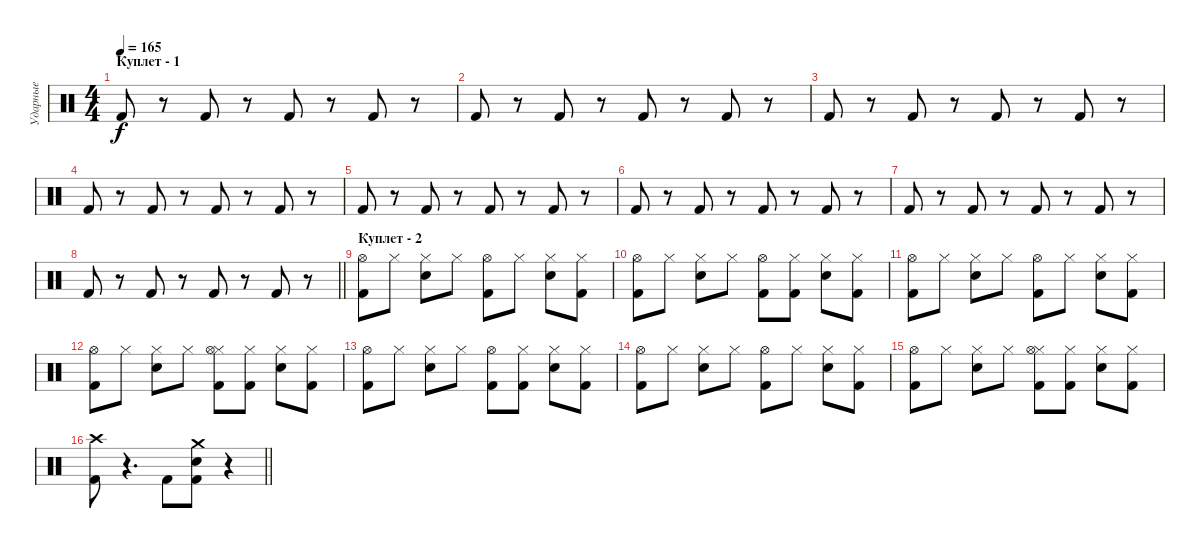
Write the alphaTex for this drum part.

\track ("Ударные" "Ударные") {instrument percussion}
\staff {score}
\articulation defaults
\ts (4 4)
\section ("" "Куплет - 1")
\tempo 165
\clef neutral
\ks c "Kick (hit) 2".8{dy f}
r.8 "Kick (hit) 2".8 r.8 "Kick (hit) 2".8 r.8 "Kick (hit) 2".8 r.8 |
"Kick (hit) 2".8 r.8 "Kick (hit) 2".8 r.8 "Kick (hit) 2".8 r.8 "Kick (hit) 2".8 r.8 |
"Kick (hit) 2".8 r.8 "Kick (hit) 2".8 r.8 "Kick (hit) 2".8 r.8 "Kick (hit) 2".8 r.8 |
"Kick (hit) 2".8 r.8 "Kick (hit) 2".8 r.8 "Kick (hit) 2".8 r.8 "Kick (hit) 2".8 r.8 |
"Kick (hit) 2".8 r.8 "Kick (hit) 2".8 r.8 "Kick (hit) 2".8 r.8 "Kick (hit) 2".8 r.8 |
"Kick (hit) 2".8 r.8 "Kick (hit) 2".8 r.8 "Kick (hit) 2".8 r.8 "Kick (hit) 2".8 r.8 |
"Kick (hit) 2".8 r.8 "Kick (hit) 2".8 r.8 "Kick (hit) 2".8 r.8 "Kick (hit) 2".8 r.8 |
\barLineRight lightlight "Kick (hit) 2".8
r.8 "Kick (hit) 2".8 r.8 "Kick (hit) 2".8 r.8 "Kick (hit) 2".8 r.8 |
\section ("" "Куплет - 2")
("Kick (hit) 2" "Hi-Hat (open)").8 "Hi-Hat (closed)".8 ("Snare (hit) 2" "Hi-Hat (closed)").8 "Hi-Hat (closed)".8 ("Kick (hit) 2" "Hi-Hat (open)").8 "Hi-Hat (closed)".8 ("Snare (hit) 2" "Hi-Hat (closed)").8 ("Kick (hit) 2" "Hi-Hat (closed)").8 |
("Kick (hit) 2" "Hi-Hat (open)").8 "Hi-Hat (closed)".8 ("Snare (hit) 2" "Hi-Hat (closed)").8 "Hi-Hat (closed)".8 ("Kick (hit) 2" "Hi-Hat (open)").8 ("Kick (hit) 2" "Hi-Hat (closed)").8 ("Snare (hit) 2" "Hi-Hat (closed)").8 ("Kick (hit) 2" "Hi-Hat (closed)").8 |
("Kick (hit) 2" "Hi-Hat (open)").8 "Hi-Hat (closed)".8 ("Snare (hit) 2" "Hi-Hat (closed)").8 "Hi-Hat (closed)".8 ("Kick (hit) 2" "Hi-Hat (open)").8 "Hi-Hat (closed)".8 ("Snare (hit) 2" "Hi-Hat (closed)").8 ("Kick (hit) 2" "Hi-Hat (closed)").8 |
("Kick (hit) 2" "Hi-Hat (open)").8 "Hi-Hat (closed)".8 ("Snare (hit) 2" "Hi-Hat (closed)").8 "Hi-Hat (closed)".8 ("Kick (hit) 2" "Hi-Hat (closed)" "Hi-Hat (open)").8 ("Kick (hit) 2" "Hi-Hat (closed)").8 ("Snare (hit) 2" "Hi-Hat (closed)").8 ("Kick (hit) 2" "Hi-Hat (closed)").8 |
("Kick (hit) 2" "Hi-Hat (open)").8 "Hi-Hat (closed)".8 ("Snare (hit) 2" "Hi-Hat (closed)").8 "Hi-Hat (closed)".8 ("Kick (hit) 2" "Hi-Hat (open)").8 ("Kick (hit) 2" "Hi-Hat (closed)").8 ("Snare (hit) 2" "Hi-Hat (closed)").8 ("Kick (hit) 2" "Hi-Hat (closed)").8 |
("Kick (hit) 2" "Hi-Hat (open)").8 "Hi-Hat (closed)".8 ("Snare (hit) 2" "Hi-Hat (closed)").8 "Hi-Hat (closed)".8 ("Kick (hit) 2" "Hi-Hat (open)").8 "Hi-Hat (closed)".8 ("Snare (hit) 2" "Hi-Hat (closed)").8 ("Kick (hit) 2" "Hi-Hat (closed)").8 |
("Kick (hit) 2" "Hi-Hat (open)").8 "Hi-Hat (closed)".8 ("Snare (hit) 2" "Hi-Hat (closed)").8 "Hi-Hat (closed)".8 ("Kick (hit) 2" "Hi-Hat (closed)" "Hi-Hat (open)").8 ("Kick (hit) 2" "Hi-Hat (closed)").8 ("Snare (hit) 2" "Hi-Hat (closed)").8 ("Kick (hit) 2" "Hi-Hat (closed)").8 |
\barLineRight lightlight
("Crash high (hit)" "Kick (hit) 2").8 r.4{d} "Kick (hit) 2".8 ("Kick (hit) 2" "Snare (hit) 2" "Crash medium (hit)").8 r.4
